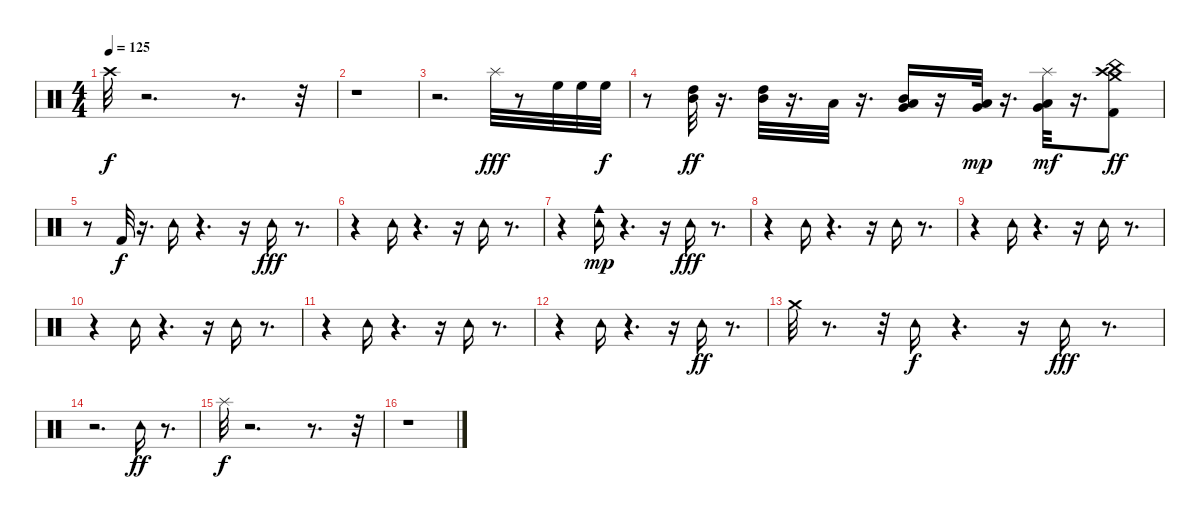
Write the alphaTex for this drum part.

\track "" {instrument percussion}
\staff {score}
\articulation defaults
\ts (4 4)
\tempo 125
\clef neutral
\ks c "Crash high (hit)".32{dy f}
r.2{d} r.8{d} r.32 |
r.1 |
r.2{d} "Splash (hit)".32{dy fff} r.8 "High Floor Tom (hit)".32 "High Floor Tom (hit)".32 "High Floor Tom (hit)".32{dy f} |
r.8 ("High Tom (hit)" "Mid Tom (hit)").32{dy ff} r.16{d} ("Mid Tom (hit)" "High Tom (hit)").32 r.16{d} "Low Tom (hit)".32 r.16{d} ("Very Low Tom (hit)" "Mid Tom (hit)" "Low Tom (hit)").16 r.16 ("Very Low Tom (hit)" "Low Tom (hit)").32{dy mp} r.16{d} ("Low Floor Tom (hit)" "Very Low Tom (hit)" "Splash (hit)").32{dy mf} r.16{d} ("Kick (hit) 2" "China (hit)" "Crash high (hit)" "Crash medium (hit)").8{dy ff} |
r.8 "Kick (hit) 2".32{dy f} r.16{d} "Tambourine (hit)".16 r.4{d} r.16 "Tambourine (hit)".16{dy fff} r.8{d} |
r.4 "Tambourine (hit)".16 r.4{d} r.16 "Tambourine (hit)".16 r.8{d} |
r.4 ("Tambourine (hit)" "Cowbell medium (hit)").16{dy mp} r.4{d} r.16 "Tambourine (hit)".16{dy fff} r.8{d} |
r.4 "Tambourine (hit)".16 r.4{d} r.16 "Tambourine (hit)".16 r.8{d} |
r.4 "Tambourine (hit)".16 r.4{d} r.16 "Tambourine (hit)".16 r.8{d} |
r.4 "Tambourine (hit)".16 r.4{d} r.16 "Tambourine (hit)".16 r.8{d} |
r.4 "Tambourine (hit)".16 r.4{d} r.16 "Tambourine (hit)".16 r.8{d} |
r.4 "Tambourine (hit)".16 r.4{d} r.16 "Tambourine (hit)".16{dy ff} r.8{d} |
"Crash medium (hit)".32 r.8{d} r.32 "Tambourine (hit)".16{dy f} r.4{d} r.16 "Tambourine (hit)".16{dy fff} r.8{d} |
r.2{d} "Tambourine (hit)".16{dy ff} r.8{d} |
"Splash (hit)".32{dy f} r.2{d} r.8{d} r.32 |
r.1
